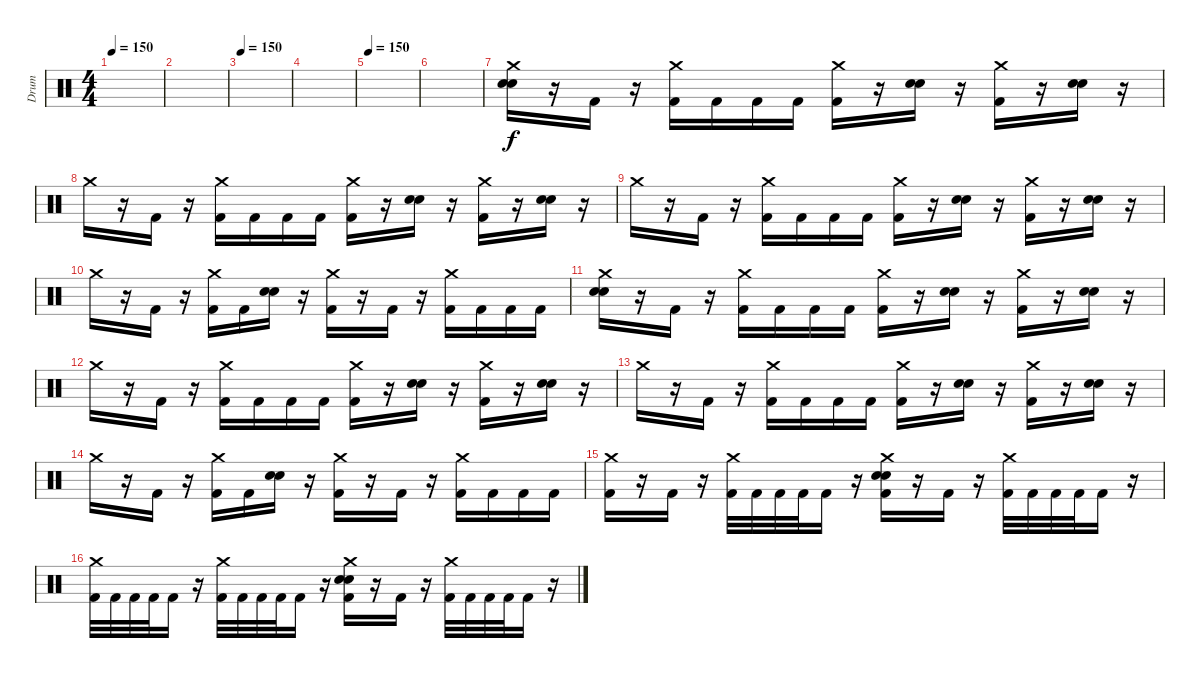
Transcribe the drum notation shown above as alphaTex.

\track ("Drum" "Drum") {instrument percussion}
\staff {score}
\articulation defaults
\ts (4 4)
\tempo 150
\clef neutral
\ks c
|
|
\tempo 150
|
|
\tempo 150
|
|
("Crash medium (hit)" "Snare (hit) 2" "Electric Snare (hit)").16 r.16 "Kick (hit) 2".16 r.16 ("Crash medium (hit)" "Kick (hit) 2").16 "Kick (hit) 2".16 "Kick (hit) 2".16 "Kick (hit) 2".16 ("Crash medium (hit)" "Kick (hit) 2").16 r.16 ("Snare (hit) 2" "Electric Snare (hit)").16 r.16 ("Crash medium (hit)" "Kick (hit) 2").16 r.16 ("Snare (hit) 2" "Electric Snare (hit)").16 r.16 |
"Crash medium (hit)".16 r.16 "Kick (hit) 2".16 r.16 ("Crash medium (hit)" "Kick (hit) 2").16 "Kick (hit) 2".16 "Kick (hit) 2".16 "Kick (hit) 2".16 ("Crash medium (hit)" "Kick (hit) 2").16 r.16 ("Snare (hit) 2" "Electric Snare (hit)").16 r.16 ("Crash medium (hit)" "Kick (hit) 2").16 r.16 ("Snare (hit) 2" "Electric Snare (hit)").16 r.16 |
"Crash medium (hit)".16 r.16 "Kick (hit) 2".16 r.16 ("Crash medium (hit)" "Kick (hit) 2").16 "Kick (hit) 2".16 "Kick (hit) 2".16 "Kick (hit) 2".16 ("Crash medium (hit)" "Kick (hit) 2").16 r.16 ("Snare (hit) 2" "Electric Snare (hit)").16 r.16 ("Crash medium (hit)" "Kick (hit) 2").16 r.16 ("Snare (hit) 2" "Electric Snare (hit)").16 r.16 |
"Crash medium (hit)".16 r.16 "Kick (hit) 2".16 r.16 ("Crash medium (hit)" "Kick (hit) 2").16 "Kick (hit) 2".16 ("Snare (hit) 2" "Electric Snare (hit)").16 r.16 ("Crash medium (hit)" "Kick (hit) 2").16 r.16 "Kick (hit) 2".16 r.16 ("Crash medium (hit)" "Kick (hit) 2").16 "Kick (hit) 2".16 "Kick (hit) 2".16 "Kick (hit) 2".16 |
("Crash medium (hit)" "Snare (hit) 2" "Electric Snare (hit)").16 r.16 "Kick (hit) 2".16 r.16 ("Crash medium (hit)" "Kick (hit) 2").16 "Kick (hit) 2".16 "Kick (hit) 2".16 "Kick (hit) 2".16 ("Crash medium (hit)" "Kick (hit) 2").16 r.16 ("Snare (hit) 2" "Electric Snare (hit)").16 r.16 ("Crash medium (hit)" "Kick (hit) 2").16 r.16 ("Snare (hit) 2" "Electric Snare (hit)").16 r.16 |
"Crash medium (hit)".16 r.16 "Kick (hit) 2".16 r.16 ("Crash medium (hit)" "Kick (hit) 2").16 "Kick (hit) 2".16 "Kick (hit) 2".16 "Kick (hit) 2".16 ("Crash medium (hit)" "Kick (hit) 2").16 r.16 ("Snare (hit) 2" "Electric Snare (hit)").16 r.16 ("Crash medium (hit)" "Kick (hit) 2").16 r.16 ("Snare (hit) 2" "Electric Snare (hit)").16 r.16 |
"Crash medium (hit)".16 r.16 "Kick (hit) 2".16 r.16 ("Crash medium (hit)" "Kick (hit) 2").16 "Kick (hit) 2".16 "Kick (hit) 2".16 "Kick (hit) 2".16 ("Crash medium (hit)" "Kick (hit) 2").16 r.16 ("Snare (hit) 2" "Electric Snare (hit)").16 r.16 ("Crash medium (hit)" "Kick (hit) 2").16 r.16 ("Snare (hit) 2" "Electric Snare (hit)").16 r.16 |
"Crash medium (hit)".16 r.16 "Kick (hit) 2".16 r.16 ("Crash medium (hit)" "Kick (hit) 2").16 "Kick (hit) 2".16 ("Snare (hit) 2" "Electric Snare (hit)").16 r.16 ("Crash medium (hit)" "Kick (hit) 2").16 r.16 "Kick (hit) 2".16 r.16 ("Crash medium (hit)" "Kick (hit) 2").16 "Kick (hit) 2".16 "Kick (hit) 2".16 "Kick (hit) 2".16 |
("Crash medium (hit)" "Kick (hit) 2").16 r.16 "Kick (hit) 2".16 r.16 ("Crash medium (hit)" "Kick (hit) 2").32 "Kick (hit) 2".32 "Kick (hit) 2".32 "Kick (hit) 2".32 "Kick (hit) 2".16 r.16 ("Crash medium (hit)" "Snare (hit) 2" "Electric Snare (hit)" "Kick (hit) 2").16 r.16 "Kick (hit) 2".16 r.16 ("Crash medium (hit)" "Kick (hit) 2").32 "Kick (hit) 2".32 "Kick (hit) 2".32 "Kick (hit) 2".32 "Kick (hit) 2".16 r.16 |
("Crash medium (hit)" "Kick (hit) 2").32 "Kick (hit) 2".32 "Kick (hit) 2".32 "Kick (hit) 2".32 "Kick (hit) 2".16 r.16 ("Crash medium (hit)" "Kick (hit) 2").32 "Kick (hit) 2".32 "Kick (hit) 2".32 "Kick (hit) 2".32 "Kick (hit) 2".16 r.16 ("Crash medium (hit)" "Snare (hit) 2" "Electric Snare (hit)" "Kick (hit) 2").16 r.16 "Kick (hit) 2".16 r.16 ("Crash medium (hit)" "Kick (hit) 2").32 "Kick (hit) 2".32 "Kick (hit) 2".32 "Kick (hit) 2".32 "Kick (hit) 2".16 r.16
